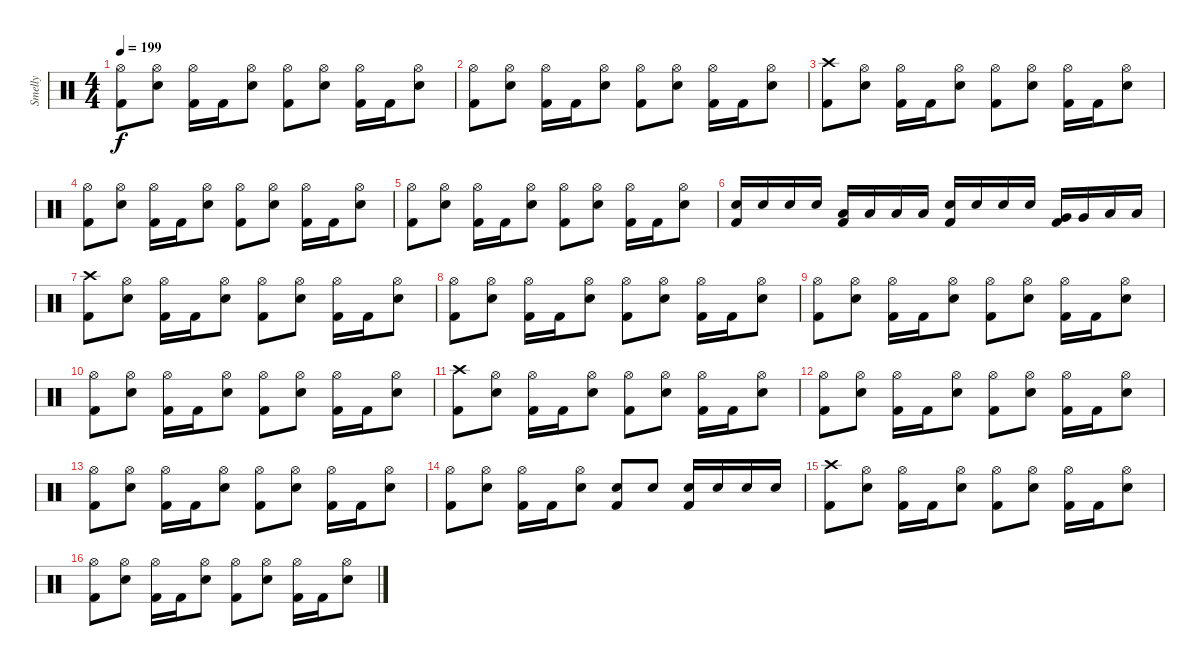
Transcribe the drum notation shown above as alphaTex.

\track ("Smelly" "Smelly") {instrument percussion}
\staff {score}
\articulation defaults
\ts (4 4)
\tempo 199
\clef neutral
\ks c
("Hi-Hat (open)" "Kick (hit) 2").8{dy f} ("Hi-Hat (open)" "Electric Snare (hit)").8 ("Hi-Hat (open)" "Kick (hit) 2").16 "Kick (hit) 2".16 ("Hi-Hat (open)" "Electric Snare (hit)").8 ("Hi-Hat (open)" "Kick (hit) 2").8 ("Hi-Hat (open)" "Electric Snare (hit)").8 ("Hi-Hat (open)" "Kick (hit) 2").16 "Kick (hit) 2".16 ("Hi-Hat (open)" "Electric Snare (hit)").8 |
("Hi-Hat (open)" "Kick (hit) 2").8 ("Hi-Hat (open)" "Electric Snare (hit)").8 ("Hi-Hat (open)" "Kick (hit) 2").16 "Kick (hit) 2".16 ("Hi-Hat (open)" "Electric Snare (hit)").8 ("Hi-Hat (open)" "Kick (hit) 2").8 ("Hi-Hat (open)" "Electric Snare (hit)").8 ("Hi-Hat (open)" "Kick (hit) 2").16 "Kick (hit) 2".16 ("Hi-Hat (open)" "Electric Snare (hit)").8 |
("Crash high (hit)" "Kick (hit) 2").8 ("Hi-Hat (open)" "Electric Snare (hit)").8 ("Hi-Hat (open)" "Kick (hit) 2").16 "Kick (hit) 2".16 ("Hi-Hat (open)" "Electric Snare (hit)").8 ("Hi-Hat (open)" "Kick (hit) 2").8 ("Hi-Hat (open)" "Electric Snare (hit)").8 ("Hi-Hat (open)" "Kick (hit) 2").16 "Kick (hit) 2".16 ("Hi-Hat (open)" "Electric Snare (hit)").8 |
("Hi-Hat (open)" "Kick (hit) 2").8 ("Hi-Hat (open)" "Electric Snare (hit)").8 ("Hi-Hat (open)" "Kick (hit) 2").16 "Kick (hit) 2".16 ("Hi-Hat (open)" "Electric Snare (hit)").8 ("Hi-Hat (open)" "Kick (hit) 2").8 ("Hi-Hat (open)" "Electric Snare (hit)").8 ("Hi-Hat (open)" "Kick (hit) 2").16 "Kick (hit) 2".16 ("Hi-Hat (open)" "Electric Snare (hit)").8 |
("Hi-Hat (open)" "Kick (hit) 2").8 ("Hi-Hat (open)" "Electric Snare (hit)").8 ("Hi-Hat (open)" "Kick (hit) 2").16 "Kick (hit) 2".16 ("Hi-Hat (open)" "Electric Snare (hit)").8 ("Hi-Hat (open)" "Kick (hit) 2").8 ("Hi-Hat (open)" "Electric Snare (hit)").8 ("Hi-Hat (open)" "Kick (hit) 2").16 "Kick (hit) 2".16 ("Hi-Hat (open)" "Electric Snare (hit)").8 |
("Electric Snare (hit)" "Kick (hit) 2").16 "Electric Snare (hit)".16 "Electric Snare (hit)".16 "Electric Snare (hit)".16 ("Low Tom (hit)" "Kick (hit) 2").16 "Low Tom (hit)".16 "Low Tom (hit)".16 "Low Tom (hit)".16 ("Electric Snare (hit)" "Kick (hit) 2").16 "Electric Snare (hit)".16 "Electric Snare (hit)".16 "Electric Snare (hit)".16 ("Very Low Tom (hit)" "Kick (hit) 2").16 "Very Low Tom (hit)".16 "Low Floor Tom (hit)".16 "Low Floor Tom (hit)".16 |
("Crash high (hit)" "Kick (hit) 2").8 ("Hi-Hat (open)" "Electric Snare (hit)").8 ("Hi-Hat (open)" "Kick (hit) 2").16 "Kick (hit) 2".16 ("Hi-Hat (open)" "Electric Snare (hit)").8 ("Hi-Hat (open)" "Kick (hit) 2").8 ("Hi-Hat (open)" "Electric Snare (hit)").8 ("Hi-Hat (open)" "Kick (hit) 2").16 "Kick (hit) 2".16 ("Hi-Hat (open)" "Electric Snare (hit)").8 |
("Hi-Hat (open)" "Kick (hit) 2").8 ("Hi-Hat (open)" "Electric Snare (hit)").8 ("Hi-Hat (open)" "Kick (hit) 2").16 "Kick (hit) 2".16 ("Hi-Hat (open)" "Electric Snare (hit)").8 ("Hi-Hat (open)" "Kick (hit) 2").8 ("Hi-Hat (open)" "Electric Snare (hit)").8 ("Hi-Hat (open)" "Kick (hit) 2").16 "Kick (hit) 2".16 ("Hi-Hat (open)" "Electric Snare (hit)").8 |
("Hi-Hat (open)" "Kick (hit) 2").8 ("Hi-Hat (open)" "Electric Snare (hit)").8 ("Hi-Hat (open)" "Kick (hit) 2").16 "Kick (hit) 2".16 ("Hi-Hat (open)" "Electric Snare (hit)").8 ("Hi-Hat (open)" "Kick (hit) 2").8 ("Hi-Hat (open)" "Electric Snare (hit)").8 ("Hi-Hat (open)" "Kick (hit) 2").16 "Kick (hit) 2".16 ("Hi-Hat (open)" "Electric Snare (hit)").8 |
("Hi-Hat (open)" "Kick (hit) 2").8 ("Hi-Hat (open)" "Electric Snare (hit)").8 ("Hi-Hat (open)" "Kick (hit) 2").16 "Kick (hit) 2".16 ("Hi-Hat (open)" "Electric Snare (hit)").8 ("Hi-Hat (open)" "Kick (hit) 2").8 ("Hi-Hat (open)" "Electric Snare (hit)").8 ("Hi-Hat (open)" "Kick (hit) 2").16 "Kick (hit) 2".16 ("Hi-Hat (open)" "Electric Snare (hit)").8 |
("Crash high (hit)" "Kick (hit) 2").8 ("Hi-Hat (open)" "Electric Snare (hit)").8 ("Hi-Hat (open)" "Kick (hit) 2").16 "Kick (hit) 2".16 ("Hi-Hat (open)" "Electric Snare (hit)").8 ("Hi-Hat (open)" "Kick (hit) 2").8 ("Hi-Hat (open)" "Electric Snare (hit)").8 ("Hi-Hat (open)" "Kick (hit) 2").16 "Kick (hit) 2".16 ("Hi-Hat (open)" "Electric Snare (hit)").8 |
("Hi-Hat (open)" "Kick (hit) 2").8 ("Hi-Hat (open)" "Electric Snare (hit)").8 ("Hi-Hat (open)" "Kick (hit) 2").16 "Kick (hit) 2".16 ("Hi-Hat (open)" "Electric Snare (hit)").8 ("Hi-Hat (open)" "Kick (hit) 2").8 ("Hi-Hat (open)" "Electric Snare (hit)").8 ("Hi-Hat (open)" "Kick (hit) 2").16 "Kick (hit) 2".16 ("Hi-Hat (open)" "Electric Snare (hit)").8 |
("Hi-Hat (open)" "Kick (hit) 2").8 ("Hi-Hat (open)" "Electric Snare (hit)").8 ("Hi-Hat (open)" "Kick (hit) 2").16 "Kick (hit) 2".16 ("Hi-Hat (open)" "Electric Snare (hit)").8 ("Hi-Hat (open)" "Kick (hit) 2").8 ("Hi-Hat (open)" "Electric Snare (hit)").8 ("Hi-Hat (open)" "Kick (hit) 2").16 "Kick (hit) 2".16 ("Hi-Hat (open)" "Electric Snare (hit)").8 |
("Hi-Hat (open)" "Kick (hit) 2").8 ("Hi-Hat (open)" "Electric Snare (hit)").8 ("Hi-Hat (open)" "Kick (hit) 2").16 "Kick (hit) 2".16 ("Hi-Hat (open)" "Electric Snare (hit)").8 ("Electric Snare (hit)" "Kick (hit) 2").8 "Electric Snare (hit)".8 ("Electric Snare (hit)" "Kick (hit) 2").16 "Electric Snare (hit)".16 "Electric Snare (hit)".16 "Electric Snare (hit)".16 |
("Crash high (hit)" "Kick (hit) 2").8 ("Hi-Hat (open)" "Electric Snare (hit)").8 ("Hi-Hat (open)" "Kick (hit) 2").16 "Kick (hit) 2".16 ("Hi-Hat (open)" "Electric Snare (hit)").8 ("Hi-Hat (open)" "Kick (hit) 2").8 ("Hi-Hat (open)" "Electric Snare (hit)").8 ("Hi-Hat (open)" "Kick (hit) 2").16 "Kick (hit) 2".16 ("Hi-Hat (open)" "Electric Snare (hit)").8 |
("Hi-Hat (open)" "Kick (hit) 2").8 ("Hi-Hat (open)" "Electric Snare (hit)").8 ("Hi-Hat (open)" "Kick (hit) 2").16 "Kick (hit) 2".16 ("Hi-Hat (open)" "Electric Snare (hit)").8 ("Hi-Hat (open)" "Kick (hit) 2").8 ("Hi-Hat (open)" "Electric Snare (hit)").8 ("Hi-Hat (open)" "Kick (hit) 2").16 "Kick (hit) 2".16 ("Hi-Hat (open)" "Electric Snare (hit)").8
